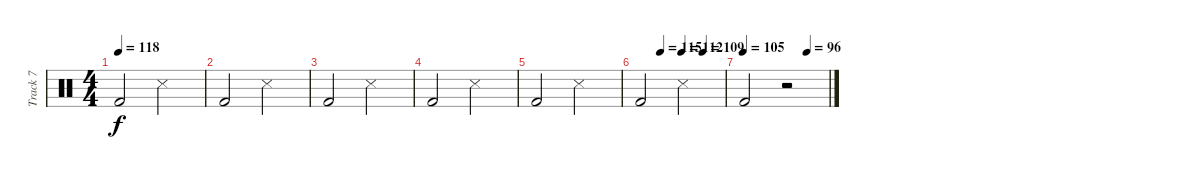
\track ("Track 7" "Track 7") {instrument percussion}
\staff {score}
\articulation defaults
\ts (4 4)
\tempo 118
\clef neutral
\ks c "Kick (hit) 2".2{dy f} "Snare (side stick) 3".2
|
"Kick (hit) 2".2 "Snare (side stick) 3".2 |
"Kick (hit) 2".2 "Snare (side stick) 3".2 |
"Kick (hit) 2".2 "Snare (side stick) 3".2 |
"Kick (hit) 2".2 "Snare (side stick) 3".2 |
\tempo (115 0.25)
\tempo (112 0.5)
\tempo (109 0.75)
"Kick (hit) 2".2 "Snare (side stick) 3".2 |
\tempo 105
\tempo (96 0.75)
"Kick (hit) 2".2 r.2
